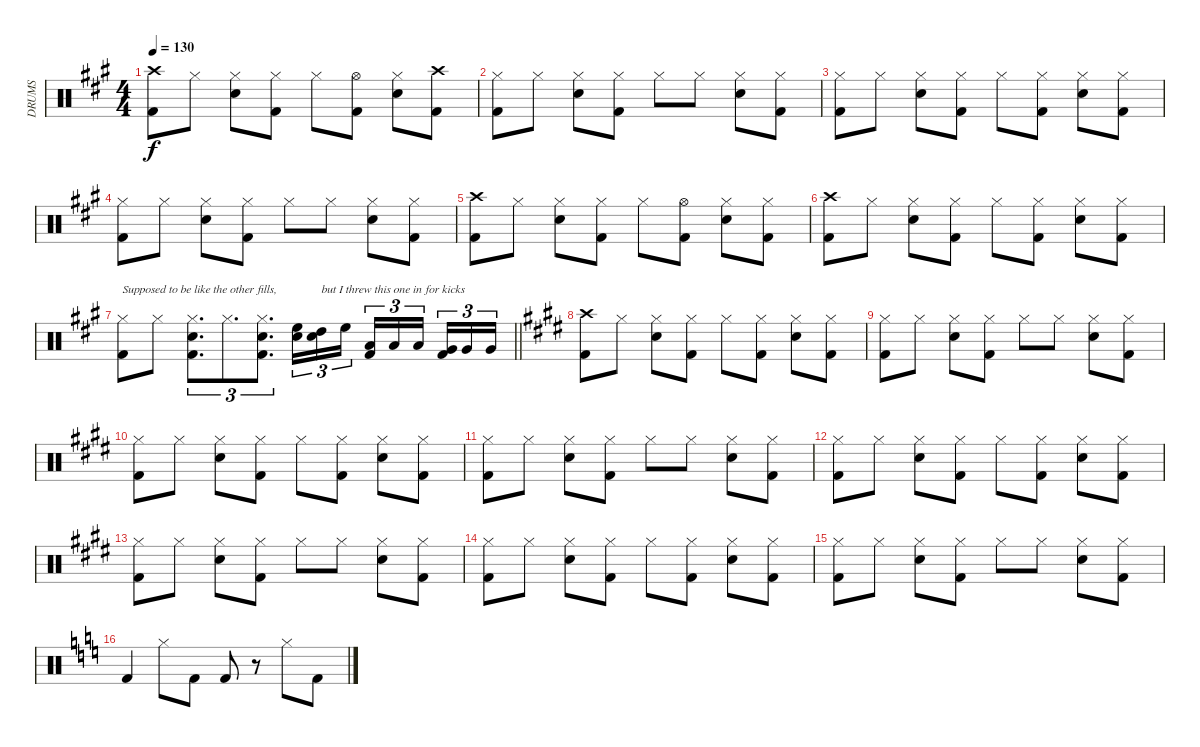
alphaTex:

\track ("DRUMS" "DRUMS") {instrument percussion}
\staff {score}
\articulation defaults
\ts (4 4)
\tempo 130
\clef neutral
\ks a
("Crash high (hit)" "Kick (hit) 2").8{dy f} "Hi-Hat (closed)".8 ("Hi-Hat (closed)" "Snare (hit) 2").8 ("Hi-Hat (closed)" "Kick (hit) 2").8 "Hi-Hat (closed)".8 ("Hi-Hat (open)" "Kick (hit) 2").8 ("Hi-Hat (closed)" "Snare (hit) 2").8 ("Crash high (hit)" "Kick (hit) 2").8 |
("Hi-Hat (closed)" "Kick (hit) 2").8 "Hi-Hat (closed)".8 ("Hi-Hat (closed)" "Snare (hit) 2").8 ("Hi-Hat (closed)" "Kick (hit) 2").8 "Hi-Hat (closed)".8 "Hi-Hat (closed)".8 ("Hi-Hat (closed)" "Snare (hit) 2").8 ("Hi-Hat (closed)" "Kick (hit) 2").8 |
("Hi-Hat (closed)" "Kick (hit) 2").8 "Hi-Hat (closed)".8 ("Hi-Hat (closed)" "Snare (hit) 2").8 ("Hi-Hat (closed)" "Kick (hit) 2").8 "Hi-Hat (closed)".8 ("Hi-Hat (closed)" "Kick (hit) 2").8 ("Hi-Hat (closed)" "Snare (hit) 2").8 ("Hi-Hat (closed)" "Kick (hit) 2").8 |
("Hi-Hat (closed)" "Kick (hit) 2").8 "Hi-Hat (closed)".8 ("Hi-Hat (closed)" "Snare (hit) 2").8 ("Hi-Hat (closed)" "Kick (hit) 2").8 "Hi-Hat (closed)".8 "Hi-Hat (closed)".8 ("Hi-Hat (closed)" "Snare (hit) 2").8 ("Hi-Hat (closed)" "Kick (hit) 2").8 |
("Crash high (hit)" "Kick (hit) 2").8 "Hi-Hat (closed)".8 ("Hi-Hat (closed)" "Snare (hit) 2").8 ("Hi-Hat (closed)" "Kick (hit) 2").8 "Hi-Hat (closed)".8 ("Hi-Hat (open)" "Kick (hit) 2").8 ("Hi-Hat (closed)" "Snare (hit) 2").8 ("Hi-Hat (closed)" "Kick (hit) 2").8 |
("Crash high (hit)" "Kick (hit) 2").8 "Hi-Hat (closed)".8 ("Hi-Hat (closed)" "Snare (hit) 2").8 ("Hi-Hat (closed)" "Kick (hit) 2").8 "Hi-Hat (closed)".8 ("Hi-Hat (closed)" "Kick (hit) 2").8 ("Hi-Hat (closed)" "Snare (hit) 2").8 ("Hi-Hat (closed)" "Kick (hit) 2").8 |
\barLineRight lightlight
("Hi-Hat (closed)" "Kick (hit) 2").8{txt "Supposed to be like the other fills,"} "Hi-Hat (closed)".8 ("Hi-Hat (closed)" "Snare (hit) 2" "Kick (hit) 2").8{d tu (3 2)} "Hi-Hat (closed)".8{d tu (3 2)} ("Hi-Hat (closed)" "Snare (hit) 2" "Kick (hit) 2").8{d tu (3 2)} ("High Floor Tom (hit)" "Snare (hit) 2").16{tu (3 2) balance 0} ("High Tom (hit)" "Snare (hit) 2").16{tu (3 2) txt "but I threw this one in for kicks"} "High Floor Tom (hit)".16{tu (3 2)} ("Low Tom (hit)" "Kick (hit) 2").16{tu (3 2) balance 8} "Low Tom (hit)".16{tu (3 2)} "Low Tom (hit)".16{tu (3 2) beam splitsecondary} ("Very Low Tom (hit)" "Kick (hit) 2").16{tu (3 2) balance 16} "Very Low Tom (hit)".16{tu (3 2)} "Very Low Tom (hit)".16{tu (3 2)} |
\ks e
("Crash high (hit)" "Kick (hit) 2").8{balance 8} "Hi-Hat (closed)".8 ("Hi-Hat (closed)" "Snare (hit) 2").8 ("Hi-Hat (closed)" "Kick (hit) 2").8 "Hi-Hat (closed)".8 ("Hi-Hat (closed)" "Kick (hit) 2").8 ("Hi-Hat (closed)" "Snare (hit) 2").8 ("Hi-Hat (closed)" "Kick (hit) 2").8 |
\ks c#minor
("Hi-Hat (closed)" "Kick (hit) 2").8 "Hi-Hat (closed)".8 ("Hi-Hat (closed)" "Snare (hit) 2").8 ("Hi-Hat (closed)" "Kick (hit) 2").8 "Hi-Hat (closed)".8 "Hi-Hat (closed)".8 ("Hi-Hat (closed)" "Snare (hit) 2").8 ("Hi-Hat (closed)" "Kick (hit) 2").8 |
\ks e
("Hi-Hat (closed)" "Kick (hit) 2").8 "Hi-Hat (closed)".8 ("Hi-Hat (closed)" "Snare (hit) 2").8 ("Hi-Hat (closed)" "Kick (hit) 2").8 "Hi-Hat (closed)".8 ("Hi-Hat (closed)" "Kick (hit) 2").8 ("Hi-Hat (closed)" "Snare (hit) 2").8 ("Hi-Hat (closed)" "Kick (hit) 2").8 |
\ks c#minor
("Hi-Hat (closed)" "Kick (hit) 2").8 "Hi-Hat (closed)".8 ("Hi-Hat (closed)" "Snare (hit) 2").8 ("Hi-Hat (closed)" "Kick (hit) 2").8 "Hi-Hat (closed)".8 "Hi-Hat (closed)".8 ("Hi-Hat (closed)" "Snare (hit) 2").8 ("Hi-Hat (closed)" "Kick (hit) 2").8 |
("Hi-Hat (closed)" "Kick (hit) 2").8 "Hi-Hat (closed)".8 ("Hi-Hat (closed)" "Snare (hit) 2").8 ("Hi-Hat (closed)" "Kick (hit) 2").8 "Hi-Hat (closed)".8 ("Hi-Hat (closed)" "Kick (hit) 2").8 ("Hi-Hat (closed)" "Snare (hit) 2").8 ("Hi-Hat (closed)" "Kick (hit) 2").8 |
("Hi-Hat (closed)" "Kick (hit) 2").8 "Hi-Hat (closed)".8 ("Hi-Hat (closed)" "Snare (hit) 2").8 ("Hi-Hat (closed)" "Kick (hit) 2").8 "Hi-Hat (closed)".8 "Hi-Hat (closed)".8 ("Hi-Hat (closed)" "Snare (hit) 2").8 ("Hi-Hat (closed)" "Kick (hit) 2").8 |
\ks e
("Hi-Hat (closed)" "Kick (hit) 2").8 "Hi-Hat (closed)".8 ("Hi-Hat (closed)" "Snare (hit) 2").8 ("Hi-Hat (closed)" "Kick (hit) 2").8 "Hi-Hat (closed)".8 ("Hi-Hat (closed)" "Kick (hit) 2").8 ("Hi-Hat (closed)" "Snare (hit) 2").8 ("Hi-Hat (closed)" "Kick (hit) 2").8 |
\ks c#minor
("Hi-Hat (closed)" "Kick (hit) 2").8 "Hi-Hat (closed)".8 ("Hi-Hat (closed)" "Snare (hit) 2").8 ("Hi-Hat (closed)" "Kick (hit) 2").8 "Hi-Hat (closed)".8 "Hi-Hat (closed)".8 ("Hi-Hat (closed)" "Snare (hit) 2").8 ("Hi-Hat (closed)" "Kick (hit) 2").8 |
\ks c "Kick (hit) 2".4 "Hi-Hat (closed)".8 "Kick (hit) 2".8 "Kick (hit) 2".8
r.8 "Hi-Hat (closed)".8 "Kick (hit) 2".8
